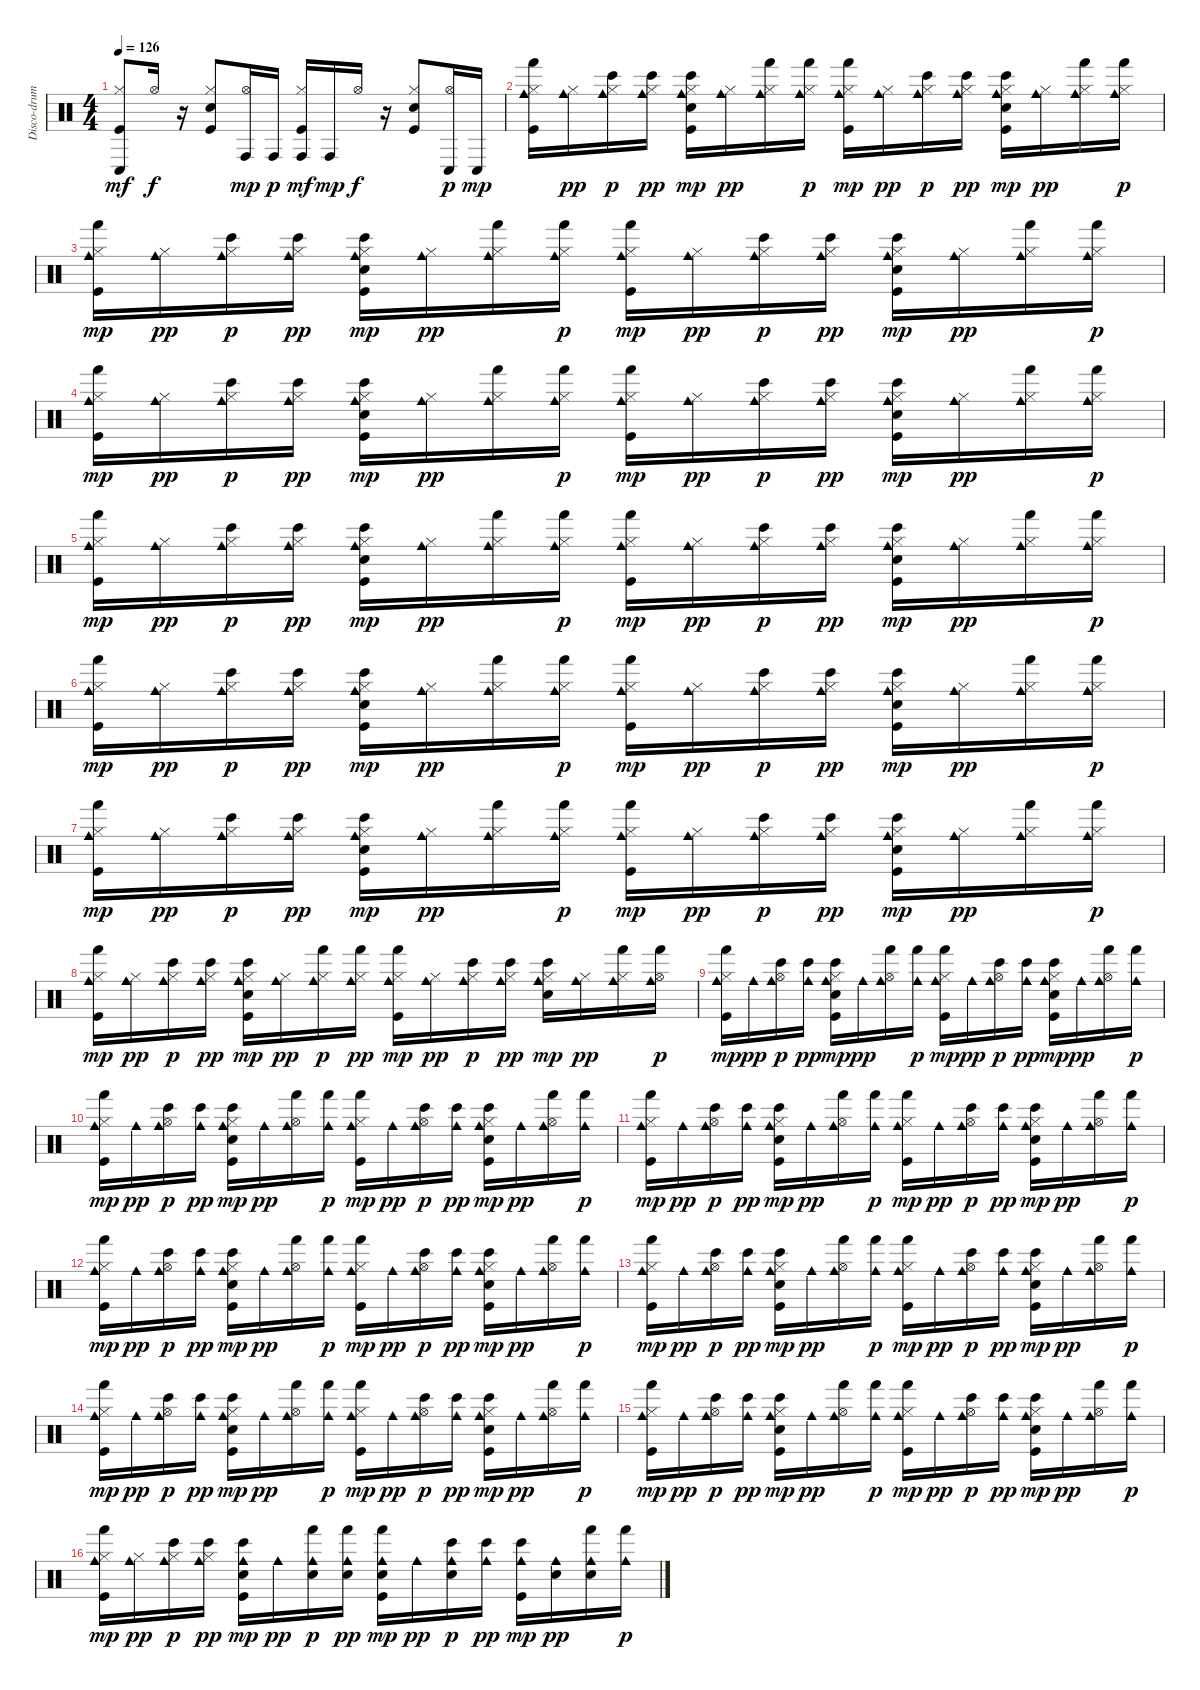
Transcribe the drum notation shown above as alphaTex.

\track ("Disco-drums !" "Disco-drum") {instrument percussion}
\staff {score}
\articulation defaults
\ts (4 4)
\tempo 126
\clef neutral
\ks c
("Hi-Hat (closed)" "Kick (hit)" "Conga low (hit)").8{dy mf} "Hi-Hat (open)".16{dy f} r.16 ("Hi-Hat (closed)" "Kick (hit)" "Snare (hit) 2").8 ("Hi-Hat (open)" "Conga high (hit)").16{dy mp} "Conga high (hit)".16{dy p} ("Hi-Hat (closed)" "Kick (hit)" "Conga high (hit)").16{dy mf} "Conga high (hit)".16{dy mp} "Hi-Hat (open)".16{dy f} r.16 ("Hi-Hat (closed)" "Kick (hit)" "Snare (hit) 2").8 ("Hi-Hat (open)" "Conga low (hit)").16{dy p} "Conga low (hit)".16{dy mp} |
("Hi-Hat (closed)" "Kick (hit)" "Cowbell medium (hit)" "Hand (hit)").16 ("Hi-Hat (closed)" "Cowbell medium (hit)").16{dy pp} ("Hi-Hat (closed)" "Cowbell medium (hit)" "Bongo High (hit)").16{dy p} ("Hi-Hat (closed)" "Cowbell medium (hit)" "Bongo High (hit)").16{dy pp} ("Hi-Hat (closed)" "Kick (hit)" "Snare (hit) 2" "Cowbell medium (hit)" "Bongo High (hit)").16{dy mp} ("Hi-Hat (closed)" "Cowbell medium (hit)").16{dy pp} ("Hi-Hat (closed)" "Cowbell medium (hit)" "Hand (hit)").16 ("Hi-Hat (closed)" "Cowbell medium (hit)" "Hand (hit)").16{dy p} ("Hi-Hat (closed)" "Kick (hit)" "Cowbell medium (hit)" "Hand (hit)").16{dy mp} ("Hi-Hat (closed)" "Cowbell medium (hit)").16{dy pp} ("Hi-Hat (closed)" "Cowbell medium (hit)" "Bongo High (hit)").16{dy p} ("Hi-Hat (closed)" "Cowbell medium (hit)" "Bongo High (hit)").16{dy pp} ("Hi-Hat (closed)" "Kick (hit)" "Snare (hit) 2" "Cowbell medium (hit)" "Bongo High (hit)").16{dy mp} ("Hi-Hat (closed)" "Cowbell medium (hit)").16{dy pp} ("Hi-Hat (closed)" "Cowbell medium (hit)" "Hand (hit)").16 ("Hi-Hat (closed)" "Cowbell medium (hit)" "Hand (hit)").16{dy p} |
("Hi-Hat (closed)" "Kick (hit)" "Cowbell medium (hit)" "Hand (hit)").16{dy mp} ("Hi-Hat (closed)" "Cowbell medium (hit)").16{dy pp} ("Hi-Hat (closed)" "Cowbell medium (hit)" "Bongo High (hit)").16{dy p} ("Hi-Hat (closed)" "Cowbell medium (hit)" "Bongo High (hit)").16{dy pp} ("Hi-Hat (closed)" "Kick (hit)" "Snare (hit) 2" "Cowbell medium (hit)" "Bongo High (hit)").16{dy mp} ("Hi-Hat (closed)" "Cowbell medium (hit)").16{dy pp} ("Hi-Hat (closed)" "Cowbell medium (hit)" "Hand (hit)").16 ("Hi-Hat (closed)" "Cowbell medium (hit)" "Hand (hit)").16{dy p} ("Hi-Hat (closed)" "Kick (hit)" "Cowbell medium (hit)" "Hand (hit)").16{dy mp} ("Hi-Hat (closed)" "Cowbell medium (hit)").16{dy pp} ("Hi-Hat (closed)" "Cowbell medium (hit)" "Bongo High (hit)").16{dy p} ("Hi-Hat (closed)" "Cowbell medium (hit)" "Bongo High (hit)").16{dy pp} ("Hi-Hat (closed)" "Kick (hit)" "Snare (hit) 2" "Cowbell medium (hit)" "Bongo High (hit)").16{dy mp} ("Hi-Hat (closed)" "Cowbell medium (hit)").16{dy pp} ("Hi-Hat (closed)" "Cowbell medium (hit)" "Hand (hit)").16 ("Hi-Hat (closed)" "Cowbell medium (hit)" "Hand (hit)").16{dy p} |
("Hi-Hat (closed)" "Kick (hit)" "Cowbell medium (hit)" "Hand (hit)").16{dy mp} ("Hi-Hat (closed)" "Cowbell medium (hit)").16{dy pp} ("Hi-Hat (closed)" "Cowbell medium (hit)" "Bongo High (hit)").16{dy p} ("Hi-Hat (closed)" "Cowbell medium (hit)" "Bongo High (hit)").16{dy pp} ("Hi-Hat (closed)" "Kick (hit)" "Snare (hit) 2" "Cowbell medium (hit)" "Bongo High (hit)").16{dy mp} ("Hi-Hat (closed)" "Cowbell medium (hit)").16{dy pp} ("Hi-Hat (closed)" "Cowbell medium (hit)" "Hand (hit)").16 ("Hi-Hat (closed)" "Cowbell medium (hit)" "Hand (hit)").16{dy p} ("Hi-Hat (closed)" "Kick (hit)" "Cowbell medium (hit)" "Hand (hit)").16{dy mp} ("Hi-Hat (closed)" "Cowbell medium (hit)").16{dy pp} ("Hi-Hat (closed)" "Cowbell medium (hit)" "Bongo High (hit)").16{dy p} ("Hi-Hat (closed)" "Cowbell medium (hit)" "Bongo High (hit)").16{dy pp} ("Hi-Hat (closed)" "Kick (hit)" "Snare (hit) 2" "Cowbell medium (hit)" "Bongo High (hit)").16{dy mp} ("Hi-Hat (closed)" "Cowbell medium (hit)").16{dy pp} ("Hi-Hat (closed)" "Cowbell medium (hit)" "Hand (hit)").16 ("Hi-Hat (closed)" "Cowbell medium (hit)" "Hand (hit)").16{dy p} |
("Hi-Hat (closed)" "Kick (hit)" "Cowbell medium (hit)" "Hand (hit)").16{dy mp} ("Hi-Hat (closed)" "Cowbell medium (hit)").16{dy pp} ("Hi-Hat (closed)" "Cowbell medium (hit)" "Bongo High (hit)").16{dy p} ("Hi-Hat (closed)" "Cowbell medium (hit)" "Bongo High (hit)").16{dy pp} ("Hi-Hat (closed)" "Kick (hit)" "Snare (hit) 2" "Cowbell medium (hit)" "Bongo High (hit)").16{dy mp} ("Hi-Hat (closed)" "Cowbell medium (hit)").16{dy pp} ("Hi-Hat (closed)" "Cowbell medium (hit)" "Hand (hit)").16 ("Hi-Hat (closed)" "Cowbell medium (hit)" "Hand (hit)").16{dy p} ("Hi-Hat (closed)" "Kick (hit)" "Cowbell medium (hit)" "Hand (hit)").16{dy mp} ("Hi-Hat (closed)" "Cowbell medium (hit)").16{dy pp} ("Hi-Hat (closed)" "Cowbell medium (hit)" "Bongo High (hit)").16{dy p} ("Hi-Hat (closed)" "Cowbell medium (hit)" "Bongo High (hit)").16{dy pp} ("Hi-Hat (closed)" "Kick (hit)" "Snare (hit) 2" "Cowbell medium (hit)" "Bongo High (hit)").16{dy mp} ("Hi-Hat (closed)" "Cowbell medium (hit)").16{dy pp} ("Hi-Hat (closed)" "Cowbell medium (hit)" "Hand (hit)").16 ("Hi-Hat (closed)" "Cowbell medium (hit)" "Hand (hit)").16{dy p} |
("Hi-Hat (closed)" "Kick (hit)" "Cowbell medium (hit)" "Hand (hit)").16{dy mp} ("Hi-Hat (closed)" "Cowbell medium (hit)").16{dy pp} ("Hi-Hat (closed)" "Cowbell medium (hit)" "Bongo High (hit)").16{dy p} ("Hi-Hat (closed)" "Cowbell medium (hit)" "Bongo High (hit)").16{dy pp} ("Hi-Hat (closed)" "Kick (hit)" "Snare (hit) 2" "Cowbell medium (hit)" "Bongo High (hit)").16{dy mp} ("Hi-Hat (closed)" "Cowbell medium (hit)").16{dy pp} ("Hi-Hat (closed)" "Cowbell medium (hit)" "Hand (hit)").16 ("Hi-Hat (closed)" "Cowbell medium (hit)" "Hand (hit)").16{dy p} ("Hi-Hat (closed)" "Kick (hit)" "Cowbell medium (hit)" "Hand (hit)").16{dy mp} ("Hi-Hat (closed)" "Cowbell medium (hit)").16{dy pp} ("Hi-Hat (closed)" "Cowbell medium (hit)" "Bongo High (hit)").16{dy p} ("Hi-Hat (closed)" "Cowbell medium (hit)" "Bongo High (hit)").16{dy pp} ("Hi-Hat (closed)" "Kick (hit)" "Snare (hit) 2" "Cowbell medium (hit)" "Bongo High (hit)").16{dy mp} ("Hi-Hat (closed)" "Cowbell medium (hit)").16{dy pp} ("Hi-Hat (closed)" "Cowbell medium (hit)" "Hand (hit)").16 ("Hi-Hat (closed)" "Cowbell medium (hit)" "Hand (hit)").16{dy p} |
("Hi-Hat (closed)" "Kick (hit)" "Cowbell medium (hit)" "Hand (hit)").16{dy mp} ("Hi-Hat (closed)" "Cowbell medium (hit)").16{dy pp} ("Hi-Hat (closed)" "Cowbell medium (hit)" "Bongo High (hit)").16{dy p} ("Hi-Hat (closed)" "Cowbell medium (hit)" "Bongo High (hit)").16{dy pp} ("Hi-Hat (closed)" "Kick (hit)" "Snare (hit) 2" "Cowbell medium (hit)" "Bongo High (hit)").16{dy mp} ("Hi-Hat (closed)" "Cowbell medium (hit)").16{dy pp} ("Hi-Hat (closed)" "Cowbell medium (hit)" "Hand (hit)").16 ("Hi-Hat (closed)" "Cowbell medium (hit)" "Hand (hit)").16{dy p} ("Hi-Hat (closed)" "Kick (hit)" "Cowbell medium (hit)" "Hand (hit)").16{dy mp} ("Hi-Hat (closed)" "Cowbell medium (hit)").16{dy pp} ("Hi-Hat (closed)" "Cowbell medium (hit)" "Bongo High (hit)").16{dy p} ("Hi-Hat (closed)" "Cowbell medium (hit)" "Bongo High (hit)").16{dy pp} ("Hi-Hat (closed)" "Kick (hit)" "Snare (hit) 2" "Cowbell medium (hit)" "Bongo High (hit)").16{dy mp} ("Hi-Hat (closed)" "Cowbell medium (hit)").16{dy pp} ("Hi-Hat (closed)" "Cowbell medium (hit)" "Hand (hit)").16 ("Hi-Hat (closed)" "Cowbell medium (hit)" "Hand (hit)").16{dy p} |
("Hi-Hat (closed)" "Kick (hit)" "Cowbell medium (hit)" "Hand (hit)").16{dy mp} ("Hi-Hat (closed)" "Cowbell medium (hit)").16{dy pp} ("Hi-Hat (closed)" "Cowbell medium (hit)" "Bongo High (hit)").16{dy p} ("Hi-Hat (closed)" "Cowbell medium (hit)" "Bongo High (hit)").16{dy pp} ("Hi-Hat (closed)" "Kick (hit)" "Snare (hit) 2" "Cowbell medium (hit)" "Bongo High (hit)").16{dy mp} ("Hi-Hat (closed)" "Cowbell medium (hit)").16{dy pp} ("Hi-Hat (closed)" "Cowbell medium (hit)" "Hand (hit)").16{dy p} ("Hi-Hat (closed)" "Cowbell medium (hit)" "Hand (hit)").16{dy pp} ("Hi-Hat (closed)" "Kick (hit)" "Cowbell medium (hit)" "Hand (hit)").16{dy mp} ("Hi-Hat (closed)" "Cowbell medium (hit)").16{dy pp} ("Hi-Hat (closed)" "Cowbell medium (hit)" "Bongo High (hit)").16{dy p} ("Hi-Hat (closed)" "Cowbell medium (hit)" "Bongo High (hit)").16{dy pp} ("Hi-Hat (closed)" "Snare (hit) 2" "Cowbell medium (hit)" "Bongo High (hit)").16{dy mp} ("Hi-Hat (closed)" "Cowbell medium (hit)").16{dy pp} ("Hi-Hat (closed)" "Cowbell medium (hit)" "Hand (hit)").16 ("Hi-Hat (open)" "Cowbell medium (hit)" "Hand (hit)").16{dy p} |
("Hi-Hat (closed)" "Kick (hit)" "Cowbell medium (hit)" "Hand (hit)").16{dy mp} "Cowbell medium (hit)".16{dy pp} ("Hi-Hat (open)" "Cowbell medium (hit)" "Bongo High (hit)").16{dy p} ("Cowbell medium (hit)" "Bongo High (hit)").16{dy pp} ("Hi-Hat (closed)" "Kick (hit)" "Snare (hit) 2" "Cowbell medium (hit)" "Bongo High (hit)").16{dy mp} "Cowbell medium (hit)".16{dy pp} ("Hi-Hat (open)" "Cowbell medium (hit)" "Hand (hit)").16 ("Cowbell medium (hit)" "Hand (hit)").16{dy p} ("Hi-Hat (closed)" "Kick (hit)" "Cowbell medium (hit)" "Hand (hit)").16{dy mp} "Cowbell medium (hit)".16{dy pp} ("Hi-Hat (open)" "Cowbell medium (hit)" "Bongo High (hit)").16{dy p} ("Cowbell medium (hit)" "Bongo High (hit)").16{dy pp} ("Hi-Hat (closed)" "Kick (hit)" "Snare (hit) 2" "Cowbell medium (hit)" "Bongo High (hit)").16{dy mp} "Cowbell medium (hit)".16{dy pp} ("Hi-Hat (open)" "Cowbell medium (hit)" "Hand (hit)").16 ("Cowbell medium (hit)" "Hand (hit)").16{dy p} |
("Hi-Hat (closed)" "Kick (hit)" "Cowbell medium (hit)" "Hand (hit)").16{dy mp} "Cowbell medium (hit)".16{dy pp} ("Hi-Hat (open)" "Cowbell medium (hit)" "Bongo High (hit)").16{dy p} ("Cowbell medium (hit)" "Bongo High (hit)").16{dy pp} ("Hi-Hat (closed)" "Kick (hit)" "Snare (hit) 2" "Cowbell medium (hit)" "Bongo High (hit)").16{dy mp} "Cowbell medium (hit)".16{dy pp} ("Hi-Hat (open)" "Cowbell medium (hit)" "Hand (hit)").16 ("Cowbell medium (hit)" "Hand (hit)").16{dy p} ("Hi-Hat (closed)" "Kick (hit)" "Cowbell medium (hit)" "Hand (hit)").16{dy mp} "Cowbell medium (hit)".16{dy pp} ("Hi-Hat (open)" "Cowbell medium (hit)" "Bongo High (hit)").16{dy p} ("Cowbell medium (hit)" "Bongo High (hit)").16{dy pp} ("Hi-Hat (closed)" "Kick (hit)" "Snare (hit) 2" "Cowbell medium (hit)" "Bongo High (hit)").16{dy mp} "Cowbell medium (hit)".16{dy pp} ("Hi-Hat (open)" "Cowbell medium (hit)" "Hand (hit)").16 ("Cowbell medium (hit)" "Hand (hit)").16{dy p} |
("Hi-Hat (closed)" "Kick (hit)" "Cowbell medium (hit)" "Hand (hit)").16{dy mp} "Cowbell medium (hit)".16{dy pp} ("Hi-Hat (open)" "Cowbell medium (hit)" "Bongo High (hit)").16{dy p} ("Cowbell medium (hit)" "Bongo High (hit)").16{dy pp} ("Hi-Hat (closed)" "Kick (hit)" "Snare (hit) 2" "Cowbell medium (hit)" "Bongo High (hit)").16{dy mp} "Cowbell medium (hit)".16{dy pp} ("Hi-Hat (open)" "Cowbell medium (hit)" "Hand (hit)").16 ("Cowbell medium (hit)" "Hand (hit)").16{dy p} ("Hi-Hat (closed)" "Kick (hit)" "Cowbell medium (hit)" "Hand (hit)").16{dy mp} "Cowbell medium (hit)".16{dy pp} ("Hi-Hat (open)" "Cowbell medium (hit)" "Bongo High (hit)").16{dy p} ("Cowbell medium (hit)" "Bongo High (hit)").16{dy pp} ("Hi-Hat (closed)" "Kick (hit)" "Snare (hit) 2" "Cowbell medium (hit)" "Bongo High (hit)").16{dy mp} "Cowbell medium (hit)".16{dy pp} ("Hi-Hat (open)" "Cowbell medium (hit)" "Hand (hit)").16 ("Cowbell medium (hit)" "Hand (hit)").16{dy p} |
("Hi-Hat (closed)" "Kick (hit)" "Cowbell medium (hit)" "Hand (hit)").16{dy mp} "Cowbell medium (hit)".16{dy pp} ("Hi-Hat (open)" "Cowbell medium (hit)" "Bongo High (hit)").16{dy p} ("Cowbell medium (hit)" "Bongo High (hit)").16{dy pp} ("Hi-Hat (closed)" "Kick (hit)" "Snare (hit) 2" "Cowbell medium (hit)" "Bongo High (hit)").16{dy mp} "Cowbell medium (hit)".16{dy pp} ("Hi-Hat (open)" "Cowbell medium (hit)" "Hand (hit)").16 ("Cowbell medium (hit)" "Hand (hit)").16{dy p} ("Hi-Hat (closed)" "Kick (hit)" "Cowbell medium (hit)" "Hand (hit)").16{dy mp} "Cowbell medium (hit)".16{dy pp} ("Hi-Hat (open)" "Cowbell medium (hit)" "Bongo High (hit)").16{dy p} ("Cowbell medium (hit)" "Bongo High (hit)").16{dy pp} ("Hi-Hat (closed)" "Kick (hit)" "Snare (hit) 2" "Cowbell medium (hit)" "Bongo High (hit)").16{dy mp} "Cowbell medium (hit)".16{dy pp} ("Hi-Hat (open)" "Cowbell medium (hit)" "Hand (hit)").16 ("Cowbell medium (hit)" "Hand (hit)").16{dy p} |
("Hi-Hat (closed)" "Kick (hit)" "Cowbell medium (hit)" "Hand (hit)").16{dy mp} "Cowbell medium (hit)".16{dy pp} ("Hi-Hat (open)" "Cowbell medium (hit)" "Bongo High (hit)").16{dy p} ("Cowbell medium (hit)" "Bongo High (hit)").16{dy pp} ("Hi-Hat (closed)" "Kick (hit)" "Snare (hit) 2" "Cowbell medium (hit)" "Bongo High (hit)").16{dy mp} "Cowbell medium (hit)".16{dy pp} ("Hi-Hat (open)" "Cowbell medium (hit)" "Hand (hit)").16 ("Cowbell medium (hit)" "Hand (hit)").16{dy p} ("Hi-Hat (closed)" "Kick (hit)" "Cowbell medium (hit)" "Hand (hit)").16{dy mp} "Cowbell medium (hit)".16{dy pp} ("Hi-Hat (open)" "Cowbell medium (hit)" "Bongo High (hit)").16{dy p} ("Cowbell medium (hit)" "Bongo High (hit)").16{dy pp} ("Hi-Hat (closed)" "Kick (hit)" "Snare (hit) 2" "Cowbell medium (hit)" "Bongo High (hit)").16{dy mp} "Cowbell medium (hit)".16{dy pp} ("Hi-Hat (open)" "Cowbell medium (hit)" "Hand (hit)").16 ("Cowbell medium (hit)" "Hand (hit)").16{dy p} |
("Hi-Hat (closed)" "Kick (hit)" "Cowbell medium (hit)" "Hand (hit)").16{dy mp} "Cowbell medium (hit)".16{dy pp} ("Hi-Hat (open)" "Cowbell medium (hit)" "Bongo High (hit)").16{dy p} ("Cowbell medium (hit)" "Bongo High (hit)").16{dy pp} ("Hi-Hat (closed)" "Kick (hit)" "Snare (hit) 2" "Cowbell medium (hit)" "Bongo High (hit)").16{dy mp} "Cowbell medium (hit)".16{dy pp} ("Hi-Hat (open)" "Cowbell medium (hit)" "Hand (hit)").16 ("Cowbell medium (hit)" "Hand (hit)").16{dy p} ("Hi-Hat (closed)" "Kick (hit)" "Cowbell medium (hit)" "Hand (hit)").16{dy mp} "Cowbell medium (hit)".16{dy pp} ("Hi-Hat (open)" "Cowbell medium (hit)" "Bongo High (hit)").16{dy p} ("Cowbell medium (hit)" "Bongo High (hit)").16{dy pp} ("Hi-Hat (closed)" "Kick (hit)" "Snare (hit) 2" "Cowbell medium (hit)" "Bongo High (hit)").16{dy mp} "Cowbell medium (hit)".16{dy pp} ("Hi-Hat (open)" "Cowbell medium (hit)" "Hand (hit)").16 ("Cowbell medium (hit)" "Hand (hit)").16{dy p} |
("Hi-Hat (closed)" "Kick (hit)" "Cowbell medium (hit)" "Hand (hit)").16{dy mp} "Cowbell medium (hit)".16{dy pp} ("Hi-Hat (open)" "Cowbell medium (hit)" "Bongo High (hit)").16{dy p} ("Cowbell medium (hit)" "Bongo High (hit)").16{dy pp} ("Hi-Hat (closed)" "Kick (hit)" "Snare (hit) 2" "Cowbell medium (hit)" "Bongo High (hit)").16{dy mp} "Cowbell medium (hit)".16{dy pp} ("Hi-Hat (open)" "Cowbell medium (hit)" "Hand (hit)").16 ("Cowbell medium (hit)" "Hand (hit)").16{dy p} ("Hi-Hat (closed)" "Kick (hit)" "Cowbell medium (hit)" "Hand (hit)").16{dy mp} "Cowbell medium (hit)".16{dy pp} ("Hi-Hat (open)" "Cowbell medium (hit)" "Bongo High (hit)").16{dy p} ("Cowbell medium (hit)" "Bongo High (hit)").16{dy pp} ("Hi-Hat (closed)" "Kick (hit)" "Snare (hit) 2" "Cowbell medium (hit)" "Bongo High (hit)").16{dy mp} "Cowbell medium (hit)".16{dy pp} ("Hi-Hat (open)" "Cowbell medium (hit)" "Hand (hit)").16 ("Cowbell medium (hit)" "Hand (hit)").16{dy p} |
("Hi-Hat (closed)" "Kick (hit)" "Cowbell medium (hit)" "Hand (hit)").16{dy mp} ("Hi-Hat (closed)" "Cowbell medium (hit)").16{dy pp} ("Hi-Hat (closed)" "Cowbell medium (hit)" "Bongo High (hit)").16{dy p} ("Hi-Hat (closed)" "Cowbell medium (hit)" "Bongo High (hit)").16{dy pp} ("Kick (hit)" "Snare (hit) 2" "Cowbell medium (hit)" "Bongo High (hit)").16{dy mp} "Cowbell medium (hit)".16{dy pp} ("Snare (hit) 2" "Cowbell medium (hit)" "Hand (hit)").16{dy p} ("Snare (hit) 2" "Cowbell medium (hit)" "Hand (hit)").16{dy pp} ("Kick (hit)" "Snare (hit) 2" "Cowbell medium (hit)" "Hand (hit)").16{dy mp} "Cowbell medium (hit)".16{dy pp} ("Snare (hit) 2" "Cowbell medium (hit)" "Bongo High (hit)").16{dy p} ("Cowbell medium (hit)" "Bongo High (hit)").16{dy pp} ("Kick (hit)" "Cowbell medium (hit)" "Bongo High (hit)").16{dy mp} ("Snare (hit) 2" "Cowbell medium (hit)").16{dy pp} ("Snare (hit) 2" "Cowbell medium (hit)" "Hand (hit)").16 ("Cowbell medium (hit)" "Hand (hit)").16{dy p}
